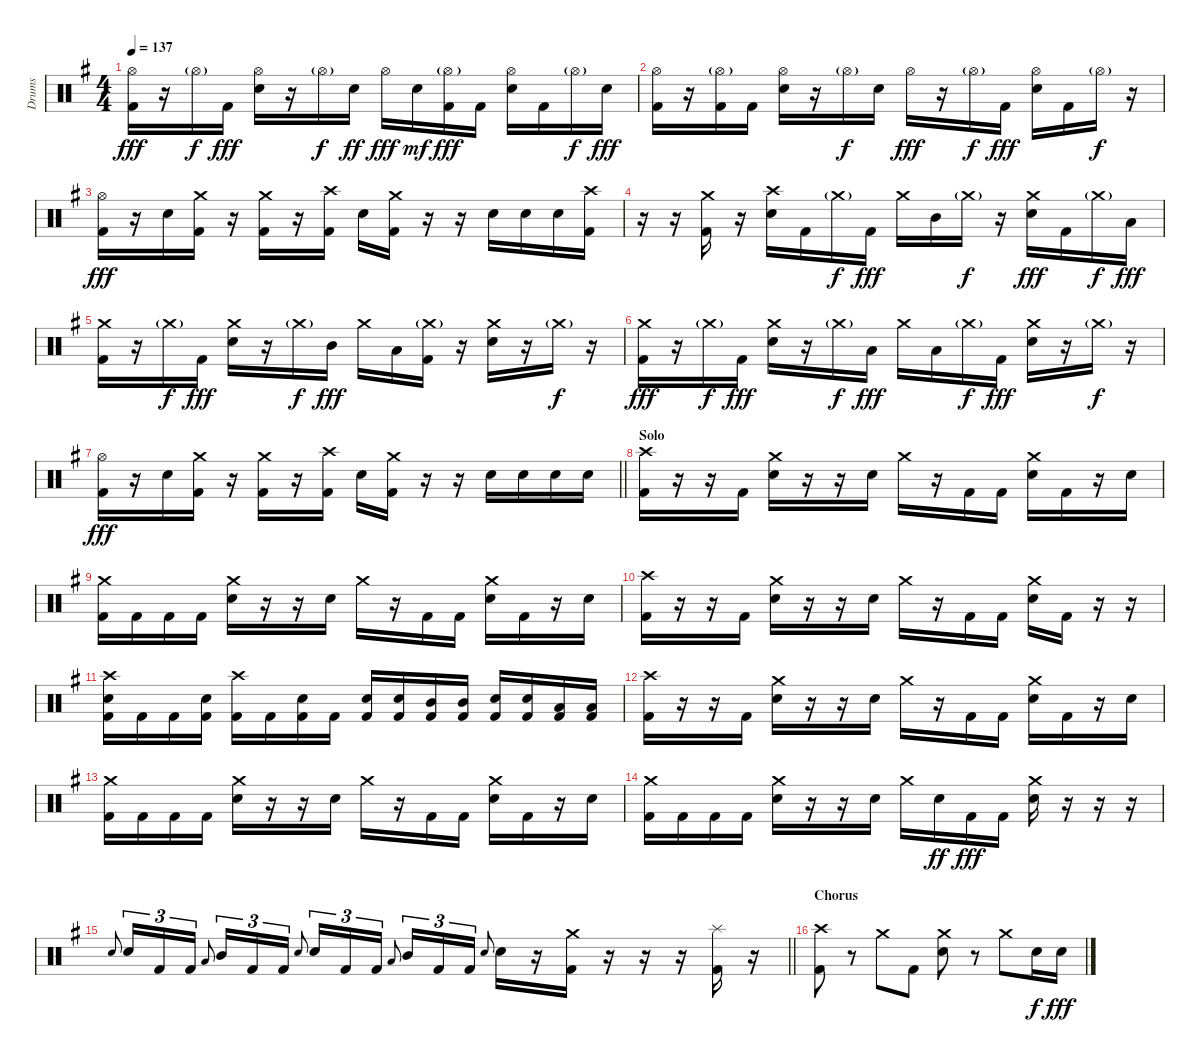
\track ("Drums" "Drums") {instrument percussion}
\staff {score}
\articulation defaults
\ts (4 4)
\tempo 137
\clef neutral
\ks eminor
("Hi-Hat (open)" "Kick (hit) 2").16{dy fff} r.16 "Hi-Hat (open)"{g}.16{dy f} "Kick (hit) 2".16{dy fff} ("Hi-Hat (open)" "Electric Snare (hit)").16 r.16 "Hi-Hat (open)"{g}.16{dy f} "Electric Snare (hit)".16{dy ff} "Hi-Hat (open)".16{dy fff} "Electric Snare (hit)".16{dy mf} ("Hi-Hat (open)"{g} "Kick (hit) 2").16{dy fff} "Kick (hit) 2".16 ("Hi-Hat (open)" "Electric Snare (hit)").16 "Kick (hit) 2".16 "Hi-Hat (open)"{g}.16{dy f} "Electric Snare (hit)".16{dy fff} |
("Hi-Hat (open)" "Kick (hit) 2").16 r.16 ("Hi-Hat (open)"{g} "Kick (hit) 2").16 "Kick (hit) 2".16 ("Hi-Hat (open)" "Electric Snare (hit)").16 r.16 "Hi-Hat (open)"{g}.16{dy f} "Electric Snare (hit)".16 "Hi-Hat (open)".16{dy fff} r.16 "Hi-Hat (open)"{g}.16{dy f} "Kick (hit) 2".16{dy fff} ("Hi-Hat (open)" "Electric Snare (hit)").16 "Kick (hit) 2".16 "Hi-Hat (open)"{g}.16{dy f} r.16 |
("Hi-Hat (open)" "Kick (hit) 2").16{dy fff} r.16 "Electric Snare (hit)".16 ("Crash medium (hit)" "Kick (hit) 2").16 r.16 ("Crash medium (hit)" "Kick (hit) 2").16 r.16 ("Crash high (hit)" "Kick (hit) 2").16 "Electric Snare (hit)".16 ("Crash medium (hit)" "Kick (hit) 2").16 r.16 r.16 "Electric Snare (hit)".16 "Electric Snare (hit)".16 "Electric Snare (hit)".16 ("Crash high (hit)" "Kick (hit) 2").16 |
r.16 r.16 ("Crash medium (hit)" "Kick (hit) 2").16 r.16 ("Crash high (hit)" "Electric Snare (hit)").16 "Kick (hit) 2".16 "Crash medium (hit)"{g}.16{dy f} "Kick (hit) 2".16{dy fff} "Crash medium (hit)".16 "Mid Tom (hit)".16 "Crash medium (hit)"{g}.16{dy f} r.16 ("Crash medium (hit)" "Electric Snare (hit)").16{dy fff} "Kick (hit) 2".16 "Crash medium (hit)"{g}.16{dy f} "Low Tom (hit)".16{dy fff} |
("Crash medium (hit)" "Kick (hit) 2").16 r.16 "Crash medium (hit)"{g}.16{dy f} "Kick (hit) 2".16{dy fff} ("Crash medium (hit)" "Electric Snare (hit)").16 r.16 "Crash medium (hit)"{g}.16{dy f} "Mid Tom (hit)".16{dy fff} "Crash medium (hit)".16 "Low Tom (hit)".16 ("Crash medium (hit)"{g} "Kick (hit) 2").16 r.16 ("Crash medium (hit)" "Electric Snare (hit)").16 r.16 "Crash medium (hit)"{g}.16{dy f} r.16 |
("Crash medium (hit)" "Kick (hit) 2").16{dy fff} r.16 "Crash medium (hit)"{g}.16{dy f} "Kick (hit) 2".16{dy fff} ("Crash medium (hit)" "Electric Snare (hit)").16 r.16 "Crash medium (hit)"{g}.16{dy f} "Low Tom (hit)".16{dy fff} "Crash medium (hit)".16 "Low Tom (hit)".16 "Crash medium (hit)"{g}.16{dy f} "Kick (hit) 2".16{dy fff} ("Crash medium (hit)" "Electric Snare (hit)").16 r.16 "Crash medium (hit)"{g}.16{dy f} r.16 |
\barLineRight lightlight
("Hi-Hat (open)" "Kick (hit) 2").16{dy fff} r.16 "Electric Snare (hit)".16 ("Crash medium (hit)" "Kick (hit) 2").16 r.16 ("Crash medium (hit)" "Kick (hit) 2").16 r.16 ("Crash high (hit)" "Kick (hit) 2").16 "Electric Snare (hit)".16 ("Crash medium (hit)" "Kick (hit) 2").16 r.16 r.16 "Electric Snare (hit)".16 "Electric Snare (hit)".16 "Electric Snare (hit)".16 "Electric Snare (hit)".16 |
\section ("" "Solo")
("Crash high (hit)" "Kick (hit) 2").16 r.16 r.16 "Kick (hit) 2".16 ("Crash medium (hit)" "Electric Snare (hit)").16 r.16 r.16 "Electric Snare (hit)".16 "Crash medium (hit)".16 r.16 "Kick (hit) 2".16 "Kick (hit) 2".16 ("Crash medium (hit)" "Electric Snare (hit)").16 "Kick (hit) 2".16 r.16 "Electric Snare (hit)".16 |
("Crash medium (hit)" "Kick (hit) 2").16 "Kick (hit) 2".16 "Kick (hit) 2".16 "Kick (hit) 2".16 ("Crash medium (hit)" "Electric Snare (hit)").16 r.16 r.16 "Electric Snare (hit)".16 "Crash medium (hit)".16 r.16 "Kick (hit) 2".16 "Kick (hit) 2".16 ("Crash medium (hit)" "Electric Snare (hit)").16 "Kick (hit) 2".16 r.16 "Electric Snare (hit)".16 |
("Crash high (hit)" "Kick (hit) 2").16 r.16 r.16 "Kick (hit) 2".16 ("Crash medium (hit)" "Electric Snare (hit)").16 r.16 r.16 "Electric Snare (hit)".16 "Crash medium (hit)".16 r.16 "Kick (hit) 2".16 "Kick (hit) 2".16 ("Crash medium (hit)" "Electric Snare (hit)").16 "Kick (hit) 2".16 r.16 r.16 |
("Crash high (hit)" "Electric Snare (hit)" "Kick (hit) 2").16 "Kick (hit) 2".16 "Kick (hit) 2".16 ("Electric Snare (hit)" "Kick (hit) 2").16 ("Crash high (hit)" "Kick (hit) 2").16 "Kick (hit) 2".16 ("Electric Snare (hit)" "Kick (hit) 2").16 "Kick (hit) 2".16 ("Electric Snare (hit)" "Kick (hit) 2").16 ("Electric Snare (hit)" "Kick (hit) 2").16 ("Mid Tom (hit)" "Kick (hit) 2").16 ("Mid Tom (hit)" "Kick (hit) 2").16 ("Electric Snare (hit)" "Kick (hit) 2").16 ("Electric Snare (hit)" "Kick (hit) 2").16 ("Low Tom (hit)" "Kick (hit) 2").16 ("Low Tom (hit)" "Kick (hit) 2").16 |
("Crash high (hit)" "Kick (hit) 2").16 r.16 r.16 "Kick (hit) 2".16 ("Crash medium (hit)" "Electric Snare (hit)").16 r.16 r.16 "Electric Snare (hit)".16 "Crash medium (hit)".16 r.16 "Kick (hit) 2".16 "Kick (hit) 2".16 ("Crash medium (hit)" "Electric Snare (hit)").16 "Kick (hit) 2".16 r.16 "Electric Snare (hit)".16 |
("Crash medium (hit)" "Kick (hit) 2").16 "Kick (hit) 2".16 "Kick (hit) 2".16 "Kick (hit) 2".16 ("Crash medium (hit)" "Electric Snare (hit)").16 r.16 r.16 "Electric Snare (hit)".16 "Crash medium (hit)".16 r.16 "Kick (hit) 2".16 "Kick (hit) 2".16 ("Crash medium (hit)" "Electric Snare (hit)").16 "Kick (hit) 2".16 r.16 "Electric Snare (hit)".16 |
("Crash medium (hit)" "Kick (hit) 2").16 "Kick (hit) 2".16 "Kick (hit) 2".16 "Kick (hit) 2".16 ("Crash medium (hit)" "Electric Snare (hit)").16 r.16 r.16 "Electric Snare (hit)".16 "Crash medium (hit)".16 "Electric Snare (hit)".16{dy ff} "Kick (hit) 2".16{dy fff} "Kick (hit) 2".16 ("Crash medium (hit)" "Electric Snare (hit)").16 r.16 r.16 r.16 |
\barLineRight lightlight "Electric Snare (hit)".8{gr onbeat} "Electric Snare (hit)".16{tu (3 2)} "Kick (hit) 2".16{tu (3 2)} "Kick (hit) 2".16{tu (3 2)} "Low Tom (hit)".8{gr onbeat beam splitsecondary} "Mid Tom (hit)".16{tu (3 2)} "Kick (hit) 2".16{tu (3 2)} "Kick (hit) 2".16{tu (3 2)} "Electric Snare (hit)".8{gr onbeat} "Electric Snare (hit)".16{tu (3 2)} "Kick (hit) 2".16{tu (3 2)} "Kick (hit) 2".16{tu (3 2)} "Low Tom (hit)".8{gr onbeat beam splitsecondary} "Mid Tom (hit)".16{tu (3 2)} "Kick (hit) 2".16{tu (3 2)} "Kick (hit) 2".16{tu (3 2)} "Electric Snare (hit)".8{gr onbeat} "Electric Snare (hit)".16
r.16 ("Crash medium (hit)" "Kick (hit) 2").16 r.16 r.16 r.16 ("Splash (hit)" "Kick (hit) 2").16 r.16 |
\section ("" "Chorus")
("Crash high (hit)" "Kick (hit) 2").8 r.8 "Crash medium (hit)".8 "Kick (hit) 2".8 ("Crash medium (hit)" "Electric Snare (hit)").8 r.8 "Crash medium (hit)".8 "Electric Snare (hit)".16{dy f} "Electric Snare (hit)".16{dy fff}
